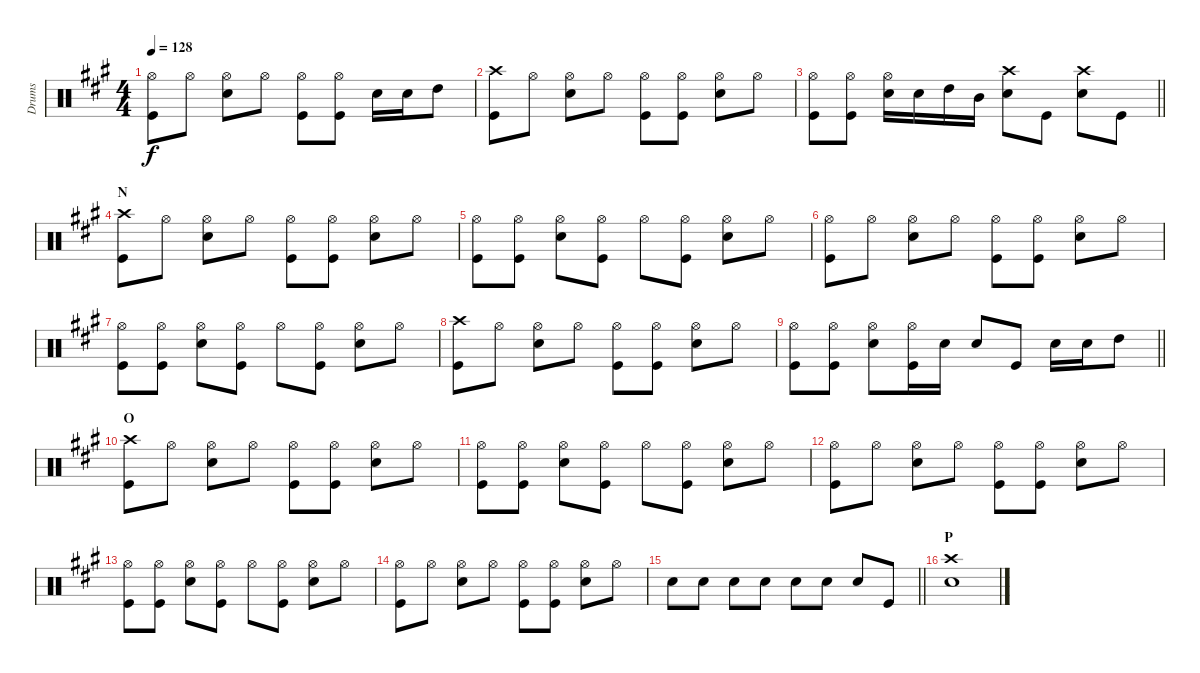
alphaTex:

\track ("Drums" "Drums") {instrument percussion}
\staff {score}
\articulation defaults
\ts (4 4)
\tempo 128
\clef neutral
\ks a
("Hi-Hat (open)" "Kick (hit)").8{dy f} "Hi-Hat (open)".8 ("Hi-Hat (open)" "Snare (hit) 2").8 "Hi-Hat (open)".8 ("Hi-Hat (open)" "Kick (hit)").8 ("Hi-Hat (open)" "Kick (hit)").8 "Snare (hit) 2".16 "Snare (hit) 2".16 "High Tom (hit)".8 |
("Crash high (hit)" "Kick (hit)").8 "Hi-Hat (open)".8 ("Hi-Hat (open)" "Snare (hit) 2").8 "Hi-Hat (open)".8 ("Hi-Hat (open)" "Kick (hit)").8 ("Hi-Hat (open)" "Kick (hit)").8 ("Hi-Hat (open)" "Snare (hit) 2").8 "Hi-Hat (open)".8 |
\barLineRight lightlight
("Hi-Hat (open)" "Kick (hit)").8 ("Hi-Hat (open)" "Kick (hit)").8 ("Hi-Hat (open)" "Snare (hit) 2").16 "Snare (hit) 2".16 "High Tom (hit)".16 "Mid Tom (hit)".16 ("Crash high (hit)" "Snare (hit) 2").8 "Kick (hit)".8 ("Crash high (hit)" "Snare (hit) 2").8 "Kick (hit)".8 |
\section ("" "N")
("Crash high (hit)" "Kick (hit)").8 "Hi-Hat (open)".8 ("Hi-Hat (open)" "Snare (hit) 2").8 "Hi-Hat (open)".8 ("Hi-Hat (open)" "Kick (hit)").8 ("Hi-Hat (open)" "Kick (hit)").8 ("Hi-Hat (open)" "Snare (hit) 2").8 "Hi-Hat (open)".8 |
("Hi-Hat (open)" "Kick (hit)").8 ("Hi-Hat (open)" "Kick (hit)").8 ("Hi-Hat (open)" "Snare (hit) 2").8 ("Hi-Hat (open)" "Kick (hit)").8 "Hi-Hat (open)".8 ("Hi-Hat (open)" "Kick (hit)").8 ("Hi-Hat (open)" "Snare (hit) 2").8 "Hi-Hat (open)".8 |
("Hi-Hat (open)" "Kick (hit)").8 "Hi-Hat (open)".8 ("Hi-Hat (open)" "Snare (hit) 2").8 "Hi-Hat (open)".8 ("Hi-Hat (open)" "Kick (hit)").8 ("Hi-Hat (open)" "Kick (hit)").8 ("Hi-Hat (open)" "Snare (hit) 2").8 "Hi-Hat (open)".8 |
("Hi-Hat (open)" "Kick (hit)").8 ("Hi-Hat (open)" "Kick (hit)").8 ("Hi-Hat (open)" "Snare (hit) 2").8 ("Hi-Hat (open)" "Kick (hit)").8 "Hi-Hat (open)".8 ("Hi-Hat (open)" "Kick (hit)").8 ("Hi-Hat (open)" "Snare (hit) 2").8 "Hi-Hat (open)".8 |
("Crash high (hit)" "Kick (hit)").8 "Hi-Hat (open)".8 ("Hi-Hat (open)" "Snare (hit) 2").8 "Hi-Hat (open)".8 ("Hi-Hat (open)" "Kick (hit)").8 ("Hi-Hat (open)" "Kick (hit)").8 ("Hi-Hat (open)" "Snare (hit) 2").8 "Hi-Hat (open)".8 |
\barLineRight lightlight
("Hi-Hat (open)" "Kick (hit)").8 ("Hi-Hat (open)" "Kick (hit)").8 ("Hi-Hat (open)" "Snare (hit) 2").8 ("Hi-Hat (open)" "Kick (hit)").16 "Snare (hit) 2".16 "Snare (hit) 2".8 "Kick (hit)".8 "Snare (hit) 2".16 "Snare (hit) 2".16 "High Tom (hit)".8 |
\section ("" "O")
("Crash high (hit)" "Kick (hit)").8 "Hi-Hat (open)".8 ("Hi-Hat (open)" "Snare (hit) 2").8 "Hi-Hat (open)".8 ("Hi-Hat (open)" "Kick (hit)").8 ("Hi-Hat (open)" "Kick (hit)").8 ("Hi-Hat (open)" "Snare (hit) 2").8 "Hi-Hat (open)".8 |
("Hi-Hat (open)" "Kick (hit)").8 ("Hi-Hat (open)" "Kick (hit)").8 ("Hi-Hat (open)" "Snare (hit) 2").8 ("Hi-Hat (open)" "Kick (hit)").8 "Hi-Hat (open)".8 ("Hi-Hat (open)" "Kick (hit)").8 ("Hi-Hat (open)" "Snare (hit) 2").8 "Hi-Hat (open)".8 |
("Hi-Hat (open)" "Kick (hit)").8 "Hi-Hat (open)".8 ("Hi-Hat (open)" "Snare (hit) 2").8 "Hi-Hat (open)".8 ("Hi-Hat (open)" "Kick (hit)").8 ("Hi-Hat (open)" "Kick (hit)").8 ("Hi-Hat (open)" "Snare (hit) 2").8 "Hi-Hat (open)".8 |
("Hi-Hat (open)" "Kick (hit)").8 ("Hi-Hat (open)" "Kick (hit)").8 ("Hi-Hat (open)" "Snare (hit) 2").8 ("Hi-Hat (open)" "Kick (hit)").8 "Hi-Hat (open)".8 ("Hi-Hat (open)" "Kick (hit)").8 ("Hi-Hat (open)" "Snare (hit) 2").8 "Hi-Hat (open)".8 |
("Hi-Hat (open)" "Kick (hit)").8 "Hi-Hat (open)".8 ("Hi-Hat (open)" "Snare (hit) 2").8 "Hi-Hat (open)".8 ("Hi-Hat (open)" "Kick (hit)").8 ("Hi-Hat (open)" "Kick (hit)").8 ("Hi-Hat (open)" "Snare (hit) 2").8 "Hi-Hat (open)".8 |
\barLineRight lightlight "Snare (hit) 2".8 "Snare (hit) 2".8 "Snare (hit) 2".8 "Snare (hit) 2".8 "Snare (hit) 2".8 "Snare (hit) 2".8 "Snare (hit) 2".8 "Kick (hit)".8
|
\section ("" "P")
("Crash high (hit)" "Snare (hit)").1
